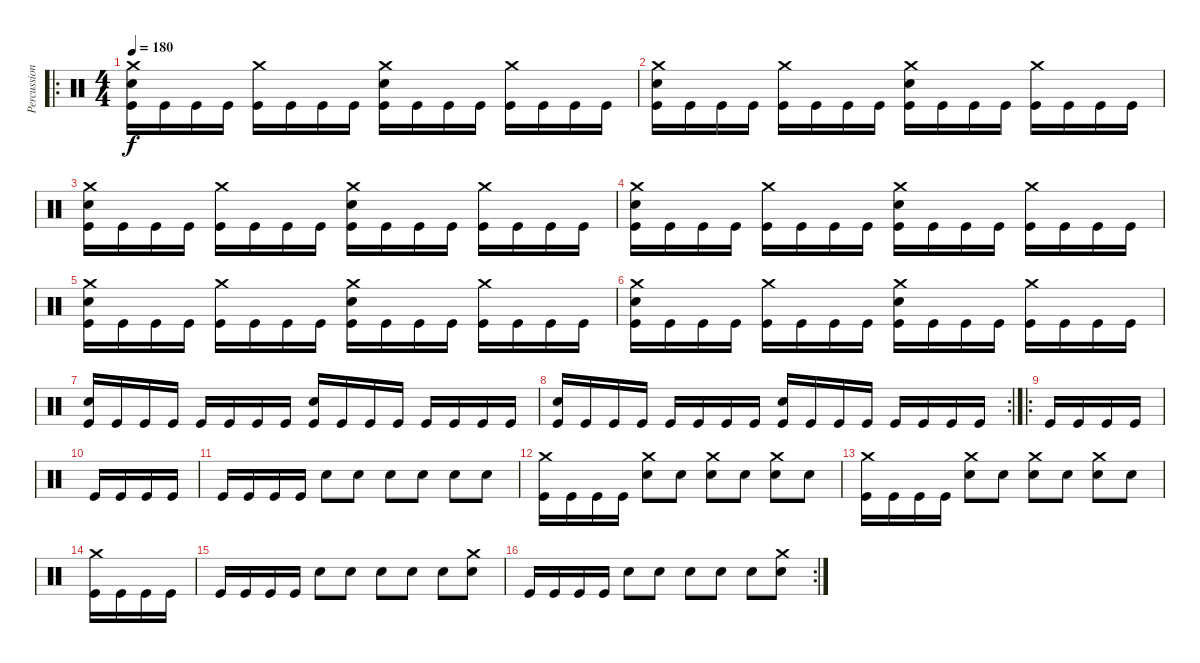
\track ("Percussion" "Percussion") {instrument percussion}
\staff {score}
\articulation defaults
\ro
\ts (4 4)
\tempo 180
\clef neutral
\ks c
("Kick (hit)" "Electric Snare (hit)" "Crash medium (hit)").16{dy f} "Kick (hit)".16 "Kick (hit)".16 "Kick (hit)".16 ("Kick (hit)" "Crash medium (hit)").16 "Kick (hit)".16 "Kick (hit)".16 "Kick (hit)".16 ("Kick (hit)" "Crash medium (hit)" "Electric Snare (hit)").16 "Kick (hit)".16 "Kick (hit)".16 "Kick (hit)".16 ("Kick (hit)" "Crash medium (hit)").16 "Kick (hit)".16 "Kick (hit)".16 "Kick (hit)".16 |
("Kick (hit)" "Crash medium (hit)" "Electric Snare (hit)").16 "Kick (hit)".16 "Kick (hit)".16 "Kick (hit)".16 ("Kick (hit)" "Crash medium (hit)").16 "Kick (hit)".16 "Kick (hit)".16 "Kick (hit)".16 ("Kick (hit)" "Crash medium (hit)" "Electric Snare (hit)").16 "Kick (hit)".16 "Kick (hit)".16 "Kick (hit)".16 ("Kick (hit)" "Crash medium (hit)").16 "Kick (hit)".16 "Kick (hit)".16 "Kick (hit)".16 |
("Kick (hit)" "Crash medium (hit)" "Electric Snare (hit)").16 "Kick (hit)".16 "Kick (hit)".16 "Kick (hit)".16 ("Kick (hit)" "Crash medium (hit)").16 "Kick (hit)".16 "Kick (hit)".16 "Kick (hit)".16 ("Kick (hit)" "Crash medium (hit)" "Electric Snare (hit)").16 "Kick (hit)".16 "Kick (hit)".16 "Kick (hit)".16 ("Kick (hit)" "Crash medium (hit)").16 "Kick (hit)".16 "Kick (hit)".16 "Kick (hit)".16 |
("Kick (hit)" "Crash medium (hit)" "Electric Snare (hit)").16 "Kick (hit)".16 "Kick (hit)".16 "Kick (hit)".16 ("Kick (hit)" "Crash medium (hit)").16 "Kick (hit)".16 "Kick (hit)".16 "Kick (hit)".16 ("Kick (hit)" "Crash medium (hit)" "Electric Snare (hit)").16 "Kick (hit)".16 "Kick (hit)".16 "Kick (hit)".16 ("Kick (hit)" "Crash medium (hit)").16 "Kick (hit)".16 "Kick (hit)".16 "Kick (hit)".16 |
("Kick (hit)" "Crash medium (hit)" "Electric Snare (hit)").16 "Kick (hit)".16 "Kick (hit)".16 "Kick (hit)".16 ("Kick (hit)" "Crash medium (hit)").16 "Kick (hit)".16 "Kick (hit)".16 "Kick (hit)".16 ("Kick (hit)" "Crash medium (hit)" "Electric Snare (hit)").16 "Kick (hit)".16 "Kick (hit)".16 "Kick (hit)".16 ("Kick (hit)" "Crash medium (hit)").16 "Kick (hit)".16 "Kick (hit)".16 "Kick (hit)".16 |
("Kick (hit)" "Crash medium (hit)" "Electric Snare (hit)").16 "Kick (hit)".16 "Kick (hit)".16 "Kick (hit)".16 ("Kick (hit)" "Crash medium (hit)").16 "Kick (hit)".16 "Kick (hit)".16 "Kick (hit)".16 ("Kick (hit)" "Crash medium (hit)" "Electric Snare (hit)").16 "Kick (hit)".16 "Kick (hit)".16 "Kick (hit)".16 ("Kick (hit)" "Crash medium (hit)").16 "Kick (hit)".16 "Kick (hit)".16 "Kick (hit)".16 |
("Kick (hit)" "Electric Snare (hit)").16 "Kick (hit)".16 "Kick (hit)".16 "Kick (hit)".16 "Kick (hit)".16 "Kick (hit)".16 "Kick (hit)".16 "Kick (hit)".16 ("Kick (hit)" "Electric Snare (hit)").16 "Kick (hit)".16 "Kick (hit)".16 "Kick (hit)".16 "Kick (hit)".16 "Kick (hit)".16 "Kick (hit)".16 "Kick (hit)".16 |
\rc 2
("Kick (hit)" "Electric Snare (hit)").16 "Kick (hit)".16 "Kick (hit)".16 "Kick (hit)".16 "Kick (hit)".16 "Kick (hit)".16 "Kick (hit)".16 "Kick (hit)".16 ("Kick (hit)" "Electric Snare (hit)").16 "Kick (hit)".16 "Kick (hit)".16 "Kick (hit)".16 "Kick (hit)".16 "Kick (hit)".16 "Kick (hit)".16 "Kick (hit)".16 |
\ro "Kick (hit)".16 "Kick (hit)".16 "Kick (hit)".16 "Kick (hit)".16
|
"Kick (hit)".16 "Kick (hit)".16 "Kick (hit)".16 "Kick (hit)".16 |
"Kick (hit)".16 "Kick (hit)".16 "Kick (hit)".16 "Kick (hit)".16 "Electric Snare (hit)".8 "Electric Snare (hit)".8 "Electric Snare (hit)".8 "Electric Snare (hit)".8 "Electric Snare (hit)".8 "Electric Snare (hit)".8 |
("Kick (hit)" "Crash medium (hit)").16 "Kick (hit)".16 "Kick (hit)".16 "Kick (hit)".16 ("Electric Snare (hit)" "Crash medium (hit)").8 "Electric Snare (hit)".8 ("Electric Snare (hit)" "Crash medium (hit)").8 "Electric Snare (hit)".8 ("Electric Snare (hit)" "Crash medium (hit)").8 "Electric Snare (hit)".8 |
("Kick (hit)" "Crash medium (hit)").16 "Kick (hit)".16 "Kick (hit)".16 "Kick (hit)".16 ("Electric Snare (hit)" "Crash medium (hit)").8 "Electric Snare (hit)".8 ("Electric Snare (hit)" "Crash medium (hit)").8 "Electric Snare (hit)".8 ("Electric Snare (hit)" "Crash medium (hit)").8 "Electric Snare (hit)".8 |
("Kick (hit)" "Crash medium (hit)").16 "Kick (hit)".16 "Kick (hit)".16 "Kick (hit)".16 |
"Kick (hit)".16 "Kick (hit)".16 "Kick (hit)".16 "Kick (hit)".16 "Electric Snare (hit)".8 "Electric Snare (hit)".8 "Electric Snare (hit)".8 "Electric Snare (hit)".8 "Electric Snare (hit)".8 ("Electric Snare (hit)" "Crash medium (hit)").8 |
\rc 2 "Kick (hit)".16 "Kick (hit)".16 "Kick (hit)".16 "Kick (hit)".16 "Electric Snare (hit)".8 "Electric Snare (hit)".8 "Electric Snare (hit)".8 "Electric Snare (hit)".8 "Electric Snare (hit)".8
("Electric Snare (hit)" "Crash medium (hit)").8
